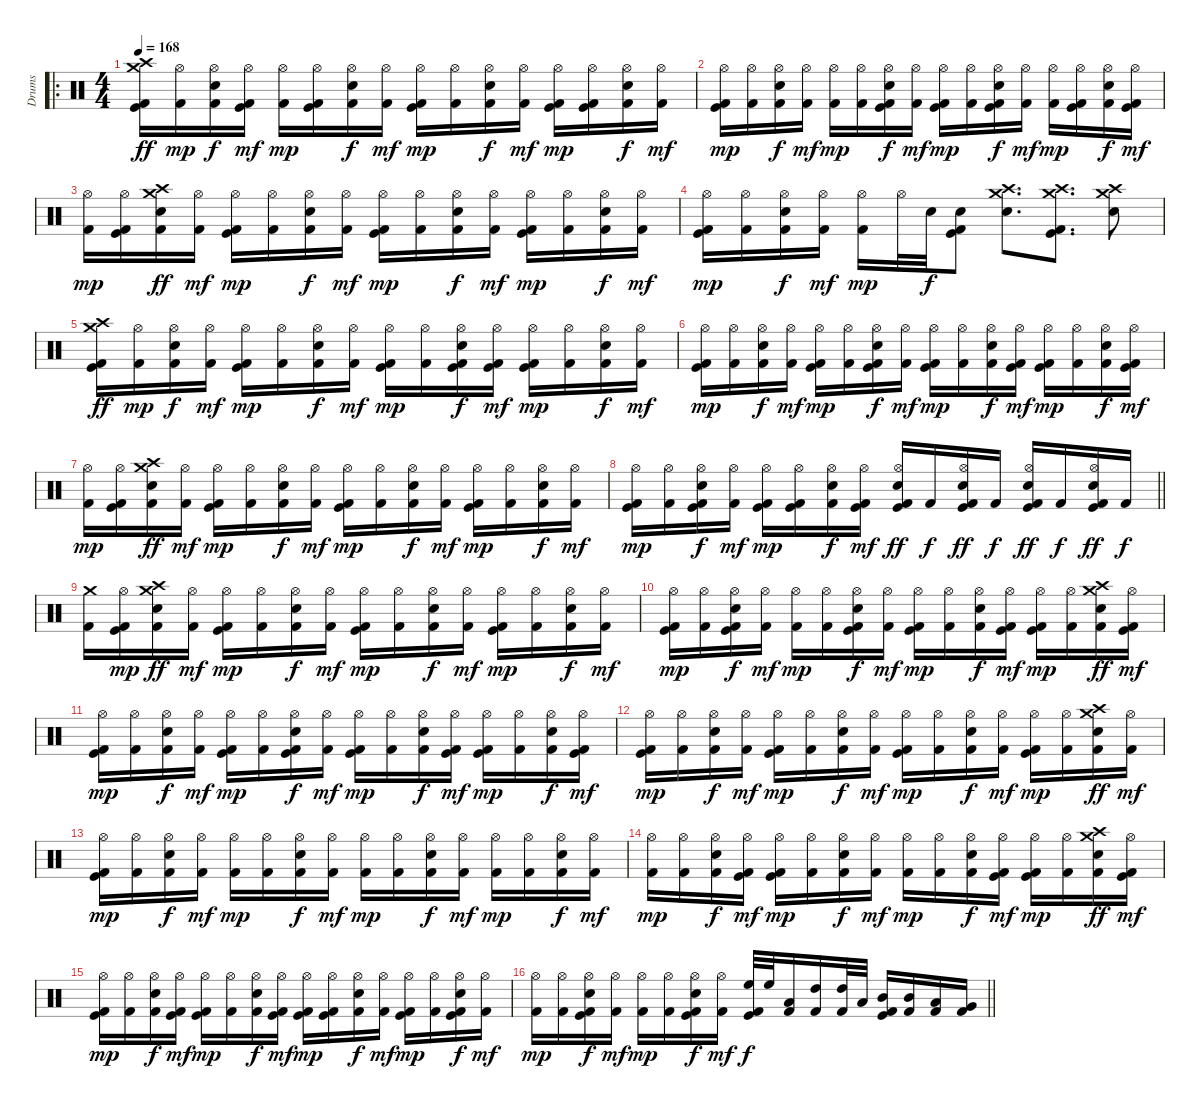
\track ("Drums" "Drums") {instrument percussion}
\staff {score}
\articulation defaults
\ro
\ts (4 4)
\tempo 168
\clef neutral
\ks c
("Crash high (hit)" "Crash medium (hit)" "Kick (hit)" "Kick (hit) 2").16{dy ff} ("Hi-Hat (open)" "Kick (hit) 2").16{dy mp} ("Hi-Hat (open)" "Snare (hit) 2" "Kick (hit) 2").16{dy f} ("Hi-Hat (open)" "Kick (hit)" "Kick (hit) 2").16{dy mf} ("Hi-Hat (open)" "Kick (hit) 2").16{dy mp} ("Hi-Hat (open)" "Kick (hit)" "Kick (hit) 2").16 ("Hi-Hat (open)" "Snare (hit) 2" "Kick (hit) 2").16{dy f} ("Hi-Hat (open)" "Kick (hit) 2").16{dy mf} ("Hi-Hat (open)" "Kick (hit)" "Kick (hit) 2").16{dy mp} ("Hi-Hat (open)" "Kick (hit) 2").16 ("Hi-Hat (open)" "Snare (hit) 2" "Kick (hit) 2").16{dy f} ("Hi-Hat (open)" "Kick (hit) 2").16{dy mf} ("Hi-Hat (open)" "Kick (hit)" "Kick (hit) 2").16{dy mp} ("Hi-Hat (open)" "Kick (hit)" "Kick (hit) 2").16 ("Hi-Hat (open)" "Snare (hit) 2" "Kick (hit) 2").16{dy f} ("Hi-Hat (open)" "Kick (hit) 2").16{dy mf} |
("Hi-Hat (open)" "Kick (hit)" "Kick (hit) 2").16{dy mp} ("Hi-Hat (open)" "Kick (hit) 2").16 ("Hi-Hat (open)" "Snare (hit) 2" "Kick (hit) 2").16{dy f} ("Hi-Hat (open)" "Kick (hit) 2").16{dy mf} ("Hi-Hat (open)" "Kick (hit) 2").16{dy mp} ("Hi-Hat (open)" "Kick (hit) 2").16 ("Hi-Hat (open)" "Snare (hit) 2" "Kick (hit)" "Kick (hit) 2").16{dy f} ("Hi-Hat (open)" "Kick (hit) 2").16{dy mf} ("Hi-Hat (open)" "Kick (hit)" "Kick (hit) 2").16{dy mp} ("Hi-Hat (open)" "Kick (hit) 2").16 ("Hi-Hat (open)" "Snare (hit) 2" "Kick (hit)" "Kick (hit) 2").16{dy f} ("Hi-Hat (open)" "Kick (hit) 2").16{dy mf} ("Hi-Hat (open)" "Kick (hit) 2").16{dy mp} ("Hi-Hat (open)" "Kick (hit)" "Kick (hit) 2").16 ("Hi-Hat (open)" "Snare (hit) 2" "Kick (hit) 2").16{dy f} ("Hi-Hat (open)" "Kick (hit)" "Kick (hit) 2").16{dy mf} |
("Hi-Hat (open)" "Kick (hit) 2").16{dy mp} ("Hi-Hat (open)" "Kick (hit)" "Kick (hit) 2").16 ("Crash high (hit)" "Crash medium (hit)" "Snare (hit) 2" "Kick (hit) 2").16{dy ff} ("Hi-Hat (open)" "Kick (hit) 2").16{dy mf} ("Hi-Hat (open)" "Kick (hit)" "Kick (hit) 2").16{dy mp} ("Hi-Hat (open)" "Kick (hit) 2").16 ("Hi-Hat (open)" "Snare (hit) 2" "Kick (hit) 2").16{dy f} ("Hi-Hat (open)" "Kick (hit) 2").16{dy mf} ("Hi-Hat (open)" "Kick (hit)" "Kick (hit) 2").16{dy mp} ("Hi-Hat (open)" "Kick (hit) 2").16 ("Hi-Hat (open)" "Snare (hit) 2" "Kick (hit) 2").16{dy f} ("Hi-Hat (open)" "Kick (hit) 2").16{dy mf} ("Hi-Hat (open)" "Kick (hit)" "Kick (hit) 2").16{dy mp} ("Hi-Hat (open)" "Kick (hit) 2").16 ("Hi-Hat (open)" "Snare (hit) 2" "Kick (hit) 2").16{dy f} ("Hi-Hat (open)" "Kick (hit) 2").16{dy mf} |
("Hi-Hat (open)" "Kick (hit)" "Kick (hit) 2").16{dy mp} ("Hi-Hat (open)" "Kick (hit) 2").16 ("Hi-Hat (open)" "Snare (hit) 2" "Kick (hit) 2").16{dy f} ("Hi-Hat (open)" "Kick (hit) 2").16{dy mf} ("Hi-Hat (open)" "Kick (hit) 2").16{dy mp} "Hi-Hat (open)".32 "Snare (hit) 2".32{dy f} ("Snare (hit) 2" "Kick (hit)" "Kick (hit) 2").8 ("Crash high (hit)" "Crash medium (hit)" "Snare (hit) 2").8{d} ("Crash high (hit)" "Crash medium (hit)" "Kick (hit)" "Kick (hit) 2").8{d} ("Crash high (hit)" "Crash medium (hit)" "Snare (hit) 2").8 |
("Crash high (hit)" "Crash medium (hit)" "Kick (hit)" "Kick (hit) 2").16{dy ff} ("Hi-Hat (open)" "Kick (hit) 2").16{dy mp} ("Hi-Hat (open)" "Snare (hit) 2" "Kick (hit) 2").16{dy f} ("Hi-Hat (open)" "Kick (hit) 2").16{dy mf} ("Hi-Hat (open)" "Kick (hit)" "Kick (hit) 2").16{dy mp} ("Hi-Hat (open)" "Kick (hit) 2").16 ("Hi-Hat (open)" "Snare (hit) 2" "Kick (hit) 2").16{dy f} ("Hi-Hat (open)" "Kick (hit) 2").16{dy mf} ("Hi-Hat (open)" "Kick (hit)" "Kick (hit) 2").16{dy mp} ("Hi-Hat (open)" "Kick (hit) 2").16 ("Hi-Hat (open)" "Snare (hit) 2" "Kick (hit)" "Kick (hit) 2").16{dy f} ("Hi-Hat (open)" "Kick (hit)" "Kick (hit) 2").16{dy mf} ("Hi-Hat (open)" "Kick (hit)" "Kick (hit) 2").16{dy mp} ("Hi-Hat (open)" "Kick (hit) 2").16 ("Hi-Hat (open)" "Snare (hit) 2" "Kick (hit) 2").16{dy f} ("Hi-Hat (open)" "Kick (hit) 2").16{dy mf} |
("Hi-Hat (open)" "Kick (hit)" "Kick (hit) 2").16{dy mp} ("Hi-Hat (open)" "Kick (hit) 2").16 ("Hi-Hat (open)" "Snare (hit) 2" "Kick (hit) 2").16{dy f} ("Hi-Hat (open)" "Kick (hit) 2").16{dy mf} ("Hi-Hat (open)" "Kick (hit)" "Kick (hit) 2").16{dy mp} ("Hi-Hat (open)" "Kick (hit) 2").16 ("Hi-Hat (open)" "Snare (hit) 2" "Kick (hit)" "Kick (hit) 2").16{dy f} ("Hi-Hat (open)" "Kick (hit) 2").16{dy mf} ("Hi-Hat (open)" "Kick (hit)" "Kick (hit) 2").16{dy mp} ("Hi-Hat (open)" "Kick (hit) 2").16 ("Hi-Hat (open)" "Snare (hit) 2" "Kick (hit) 2").16{dy f} ("Hi-Hat (open)" "Kick (hit)" "Kick (hit) 2").16{dy mf} ("Hi-Hat (open)" "Kick (hit)" "Kick (hit) 2").16{dy mp} ("Hi-Hat (open)" "Kick (hit) 2").16 ("Hi-Hat (open)" "Snare (hit) 2" "Kick (hit) 2").16{dy f} ("Hi-Hat (open)" "Kick (hit)" "Kick (hit) 2").16{dy mf} |
("Hi-Hat (open)" "Kick (hit) 2").16{dy mp} ("Hi-Hat (open)" "Kick (hit)" "Kick (hit) 2").16 ("Crash high (hit)" "Crash medium (hit)" "Snare (hit) 2" "Kick (hit) 2").16{dy ff} ("Hi-Hat (open)" "Kick (hit) 2").16{dy mf} ("Hi-Hat (open)" "Kick (hit)" "Kick (hit) 2").16{dy mp} ("Hi-Hat (open)" "Kick (hit) 2").16 ("Hi-Hat (open)" "Snare (hit) 2" "Kick (hit) 2").16{dy f} ("Hi-Hat (open)" "Kick (hit) 2").16{dy mf} ("Hi-Hat (open)" "Kick (hit)" "Kick (hit) 2").16{dy mp} ("Hi-Hat (open)" "Kick (hit) 2").16 ("Hi-Hat (open)" "Snare (hit) 2" "Kick (hit) 2").16{dy f} ("Hi-Hat (open)" "Kick (hit) 2").16{dy mf} ("Hi-Hat (open)" "Kick (hit)" "Kick (hit) 2").16{dy mp} ("Hi-Hat (open)" "Kick (hit) 2").16 ("Hi-Hat (open)" "Snare (hit) 2" "Kick (hit) 2").16{dy f} ("Hi-Hat (open)" "Kick (hit) 2").16{dy mf} |
\barLineRight lightlight
("Hi-Hat (open)" "Kick (hit)" "Kick (hit) 2").16{dy mp} ("Hi-Hat (open)" "Kick (hit) 2").16 ("Hi-Hat (open)" "Snare (hit) 2" "Kick (hit)" "Kick (hit) 2").16{dy f} ("Hi-Hat (open)" "Kick (hit) 2").16{dy mf} ("Hi-Hat (open)" "Kick (hit)" "Kick (hit) 2").16{dy mp} ("Hi-Hat (open)" "Kick (hit)" "Kick (hit) 2").16 ("Hi-Hat (open)" "Snare (hit) 2" "Kick (hit) 2").16{dy f} ("Hi-Hat (open)" "Kick (hit)" "Kick (hit) 2").16{dy mf} ("Hi-Hat (open)" "Snare (hit) 2" "Kick (hit)" "Kick (hit) 2").16{dy ff} "Kick (hit) 2".16{dy f} ("Hi-Hat (open)" "Snare (hit) 2" "Kick (hit)" "Kick (hit) 2").16{dy ff} "Kick (hit) 2".16{dy f} ("Hi-Hat (open)" "Snare (hit) 2" "Kick (hit)" "Kick (hit) 2").16{dy ff} "Kick (hit) 2".16{dy f} ("Hi-Hat (open)" "Snare (hit) 2" "Kick (hit)" "Kick (hit) 2").16{dy ff} "Kick (hit) 2".16{dy f} |
("Crash medium (hit)" "Kick (hit) 2").16 ("Hi-Hat (open)" "Kick (hit)" "Kick (hit) 2").16{dy mp} ("Crash high (hit)" "Crash medium (hit)" "Snare (hit) 2" "Kick (hit) 2").16{dy ff} ("Hi-Hat (open)" "Kick (hit) 2").16{dy mf} ("Hi-Hat (open)" "Kick (hit)" "Kick (hit) 2").16{dy mp} ("Hi-Hat (open)" "Kick (hit) 2").16 ("Hi-Hat (open)" "Snare (hit) 2" "Kick (hit) 2").16{dy f} ("Hi-Hat (open)" "Kick (hit) 2").16{dy mf} ("Hi-Hat (open)" "Kick (hit)" "Kick (hit) 2").16{dy mp} ("Hi-Hat (open)" "Kick (hit) 2").16 ("Hi-Hat (open)" "Snare (hit) 2" "Kick (hit) 2").16{dy f} ("Hi-Hat (open)" "Kick (hit) 2").16{dy mf} ("Hi-Hat (open)" "Kick (hit)" "Kick (hit) 2").16{dy mp} ("Hi-Hat (open)" "Kick (hit) 2").16 ("Hi-Hat (open)" "Snare (hit) 2" "Kick (hit) 2").16{dy f} ("Hi-Hat (open)" "Kick (hit) 2").16{dy mf} |
("Hi-Hat (open)" "Kick (hit)" "Kick (hit) 2").16{dy mp} ("Hi-Hat (open)" "Kick (hit) 2").16 ("Hi-Hat (open)" "Snare (hit) 2" "Kick (hit)" "Kick (hit) 2").16{dy f} ("Hi-Hat (open)" "Kick (hit) 2").16{dy mf} ("Hi-Hat (open)" "Kick (hit) 2").16{dy mp} ("Hi-Hat (open)" "Kick (hit) 2").16 ("Hi-Hat (open)" "Snare (hit) 2" "Kick (hit)" "Kick (hit) 2").16{dy f} ("Hi-Hat (open)" "Kick (hit) 2").16{dy mf} ("Hi-Hat (open)" "Kick (hit)" "Kick (hit) 2").16{dy mp} ("Hi-Hat (open)" "Kick (hit) 2").16 ("Hi-Hat (open)" "Snare (hit) 2" "Kick (hit) 2").16{dy f} ("Hi-Hat (open)" "Kick (hit)" "Kick (hit) 2").16{dy mf} ("Hi-Hat (open)" "Kick (hit)" "Kick (hit) 2").16{dy mp} ("Hi-Hat (open)" "Kick (hit) 2").16 ("Crash high (hit)" "Crash medium (hit)" "Snare (hit) 2" "Kick (hit) 2").16{dy ff} ("Hi-Hat (open)" "Kick (hit)" "Kick (hit) 2").16{dy mf} |
("Hi-Hat (open)" "Kick (hit)" "Kick (hit) 2").16{dy mp} ("Hi-Hat (open)" "Kick (hit) 2").16 ("Hi-Hat (open)" "Snare (hit) 2" "Kick (hit) 2").16{dy f} ("Hi-Hat (open)" "Kick (hit) 2").16{dy mf} ("Hi-Hat (open)" "Kick (hit)" "Kick (hit) 2").16{dy mp} ("Hi-Hat (open)" "Kick (hit) 2").16 ("Hi-Hat (open)" "Snare (hit) 2" "Kick (hit)" "Kick (hit) 2").16{dy f} ("Hi-Hat (open)" "Kick (hit) 2").16{dy mf} ("Hi-Hat (open)" "Kick (hit)" "Kick (hit) 2").16{dy mp} ("Hi-Hat (open)" "Kick (hit) 2").16 ("Hi-Hat (open)" "Snare (hit) 2" "Kick (hit) 2").16{dy f} ("Hi-Hat (open)" "Kick (hit)" "Kick (hit) 2").16{dy mf} ("Hi-Hat (open)" "Kick (hit)" "Kick (hit) 2").16{dy mp} ("Hi-Hat (open)" "Kick (hit) 2").16 ("Hi-Hat (open)" "Snare (hit) 2" "Kick (hit) 2").16{dy f} ("Hi-Hat (open)" "Kick (hit)" "Kick (hit) 2").16{dy mf} |
("Hi-Hat (open)" "Kick (hit)" "Kick (hit) 2").16{dy mp} ("Hi-Hat (open)" "Kick (hit) 2").16 ("Hi-Hat (open)" "Snare (hit) 2" "Kick (hit) 2").16{dy f} ("Hi-Hat (open)" "Kick (hit) 2").16{dy mf} ("Hi-Hat (open)" "Kick (hit)" "Kick (hit) 2").16{dy mp} ("Hi-Hat (open)" "Kick (hit) 2").16 ("Hi-Hat (open)" "Snare (hit) 2" "Kick (hit) 2").16{dy f} ("Hi-Hat (open)" "Kick (hit) 2").16{dy mf} ("Hi-Hat (open)" "Kick (hit)" "Kick (hit) 2").16{dy mp} ("Hi-Hat (open)" "Kick (hit) 2").16 ("Hi-Hat (open)" "Snare (hit) 2" "Kick (hit) 2").16{dy f} ("Hi-Hat (open)" "Kick (hit) 2").16{dy mf} ("Hi-Hat (open)" "Kick (hit)" "Kick (hit) 2").16{dy mp} ("Hi-Hat (open)" "Kick (hit) 2").16 ("Crash high (hit)" "Crash medium (hit)" "Snare (hit) 2" "Kick (hit) 2").16{dy ff} ("Hi-Hat (open)" "Kick (hit) 2").16{dy mf} |
("Hi-Hat (open)" "Kick (hit)" "Kick (hit) 2").16{dy mp} ("Hi-Hat (open)" "Kick (hit) 2").16 ("Hi-Hat (open)" "Snare (hit) 2" "Kick (hit) 2").16{dy f} ("Hi-Hat (open)" "Kick (hit) 2").16{dy mf} ("Hi-Hat (open)" "Kick (hit) 2").16{dy mp} ("Hi-Hat (open)" "Kick (hit) 2").16 ("Hi-Hat (open)" "Snare (hit) 2" "Kick (hit) 2").16{dy f} ("Hi-Hat (open)" "Kick (hit) 2").16{dy mf} ("Hi-Hat (open)" "Kick (hit) 2").16{dy mp} ("Hi-Hat (open)" "Kick (hit) 2").16 ("Hi-Hat (open)" "Snare (hit) 2" "Kick (hit) 2").16{dy f} ("Hi-Hat (open)" "Kick (hit) 2").16{dy mf} ("Hi-Hat (open)" "Kick (hit) 2").16{dy mp} ("Hi-Hat (open)" "Kick (hit) 2").16 ("Hi-Hat (open)" "Snare (hit) 2" "Kick (hit) 2").16{dy f} ("Hi-Hat (open)" "Kick (hit) 2").16{dy mf} |
("Hi-Hat (open)" "Kick (hit) 2").16{dy mp} ("Hi-Hat (open)" "Kick (hit) 2").16 ("Hi-Hat (open)" "Snare (hit) 2" "Kick (hit) 2").16{dy f} ("Hi-Hat (open)" "Kick (hit)" "Kick (hit) 2").16{dy mf} ("Hi-Hat (open)" "Kick (hit)" "Kick (hit) 2").16{dy mp} ("Hi-Hat (open)" "Kick (hit) 2").16 ("Hi-Hat (open)" "Snare (hit) 2" "Kick (hit) 2").16{dy f} ("Hi-Hat (open)" "Kick (hit) 2").16{dy mf} ("Hi-Hat (open)" "Kick (hit) 2").16{dy mp} ("Hi-Hat (open)" "Kick (hit) 2").16 ("Hi-Hat (open)" "Snare (hit) 2" "Kick (hit) 2").16{dy f} ("Hi-Hat (open)" "Kick (hit)" "Kick (hit) 2").16{dy mf} ("Hi-Hat (open)" "Kick (hit)" "Kick (hit) 2").16{dy mp} ("Hi-Hat (open)" "Kick (hit) 2").16 ("Crash high (hit)" "Crash medium (hit)" "Snare (hit) 2" "Kick (hit) 2").16{dy ff} ("Hi-Hat (open)" "Kick (hit)" "Kick (hit) 2").16{dy mf} |
("Hi-Hat (open)" "Kick (hit)" "Kick (hit) 2").16{dy mp} ("Hi-Hat (open)" "Kick (hit) 2").16 ("Hi-Hat (open)" "Snare (hit) 2" "Kick (hit) 2").16{dy f} ("Hi-Hat (open)" "Kick (hit)" "Kick (hit) 2").16{dy mf} ("Hi-Hat (open)" "Kick (hit)" "Kick (hit) 2").16{dy mp} ("Hi-Hat (open)" "Kick (hit) 2").16 ("Hi-Hat (open)" "Snare (hit) 2" "Kick (hit) 2").16{dy f} ("Hi-Hat (open)" "Kick (hit)" "Kick (hit) 2").16{dy mf} ("Hi-Hat (open)" "Kick (hit)" "Kick (hit) 2").16{dy mp} ("Hi-Hat (open)" "Kick (hit)" "Kick (hit) 2").16 ("Hi-Hat (open)" "Snare (hit) 2" "Kick (hit) 2").16{dy f} ("Hi-Hat (open)" "Kick (hit) 2").16{dy mf} ("Hi-Hat (open)" "Kick (hit)" "Kick (hit) 2").16{dy mp} ("Hi-Hat (open)" "Kick (hit) 2").16 ("Hi-Hat (open)" "Snare (hit) 2" "Kick (hit)" "Kick (hit) 2").16{dy f} ("Hi-Hat (open)" "Kick (hit) 2").16{dy mf} |
\barLineRight lightlight
("Hi-Hat (open)" "Kick (hit) 2").16{dy mp} ("Hi-Hat (open)" "Kick (hit) 2").16 ("Hi-Hat (open)" "Snare (hit) 2" "Kick (hit)" "Kick (hit) 2").16{dy f} ("Hi-Hat (open)" "Kick (hit) 2").16{dy mf} ("Hi-Hat (open)" "Kick (hit) 2").16{dy mp} ("Hi-Hat (open)" "Kick (hit) 2").16 ("Hi-Hat (open)" "Snare (hit) 2" "Kick (hit)" "Kick (hit) 2").16{dy f} ("Hi-Hat (open)" "Kick (hit) 2").16{dy mf} ("High Floor Tom (hit)" "Kick (hit)" "Kick (hit) 2").32{dy f} "High Floor Tom (hit)".32 ("Low Tom (hit)" "Kick (hit) 2").16 ("High Tom (hit)" "Kick (hit) 2").16 ("High Tom (hit)" "Kick (hit) 2").32 "Low Tom (hit)".32 ("Mid Tom (hit)" "Kick (hit)" "Kick (hit) 2").16 ("Mid Tom (hit)" "Kick (hit) 2").16 ("Low Tom (hit)" "Kick (hit) 2").16 ("Very Low Tom (hit)" "Kick (hit) 2").16
